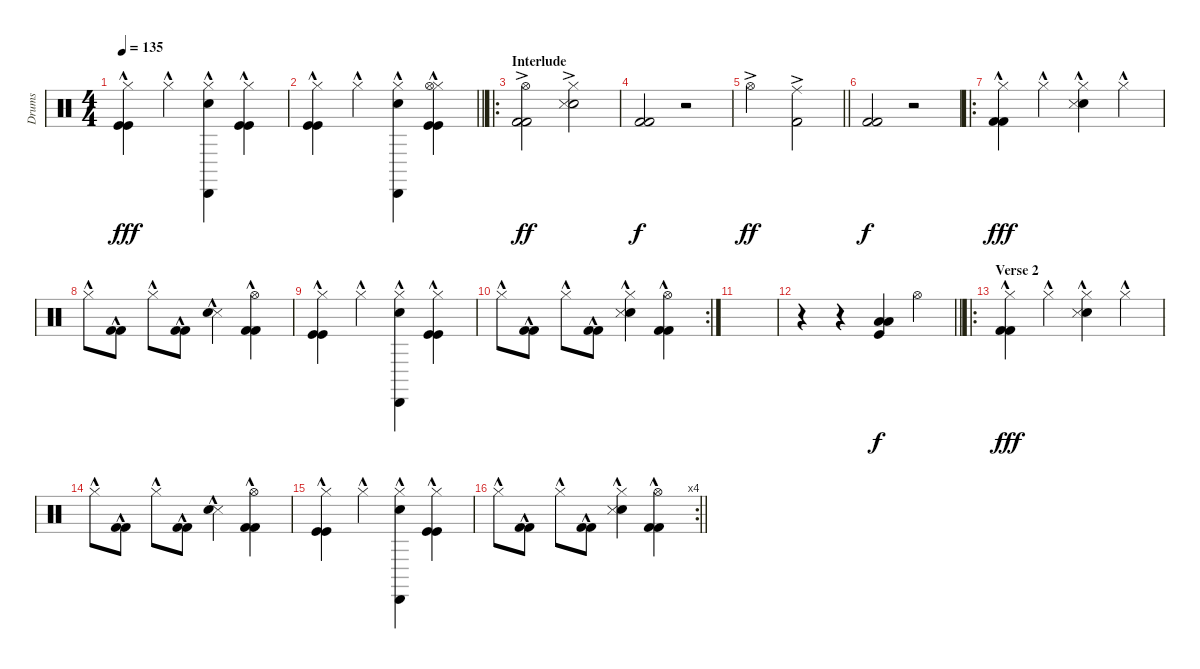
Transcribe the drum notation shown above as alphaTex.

\track ("Drums" "Drums") {instrument percussion}
\staff {score}
\articulation defaults
\ts (4 4)
\tempo 135
\clef neutral
\ks c
("Hi-Hat (closed)"{hac} "Kick (hit)"{hac} "Kick (hit)"{hac}).4{dy fff} "Hi-Hat (closed)"{hac}.4 ("Hi-Hat (closed)"{hac} "Cabasa (hit)"{hac} "Electric Snare (hit)"{hac}).4 ("Hi-Hat (closed)"{hac} "Kick (hit)"{hac} "Kick (hit)"{hac}).4 |
\barLineRight lightlight
("Hi-Hat (closed)"{hac} "Kick (hit)"{hac} "Kick (hit)"{hac}).4 "Hi-Hat (closed)"{hac}.4 ("Hi-Hat (closed)"{hac} "Cabasa (hit)"{hac} "Electric Snare (hit)"{hac}).4 ("Hi-Hat (closed)"{hac} "Kick (hit)"{hac} "Kick (hit)"{hac} "Hi-Hat (open)"{hac}).4 |
\ro
\section ("" "Interlude")
("Hi-Hat (open)"{ac} "Kick (hit) 2"{ac} "Kick (hit) 2"{ac}).2{dy ff} ("Electric Snare (hit)"{ac} "Snare (side stick) 3"{ac} "Hi-Hat (closed)").2 |
("Kick (hit) 2" "Kick (hit) 2").2{dy f} r.2 |
\barLineRight lightlight "Hi-Hat (open)"{ac}.2{dy ff}
("Ride (middle)"{ac} "Kick (hit) 2"{ac}).2 |
("Kick (hit) 2" "Kick (hit) 2").2{dy f} r.2 |
\ro
("Kick (hit) 2"{hac} "Hi-Hat (closed)"{hac} "Kick (hit) 2"{hac}).4{dy fff} "Hi-Hat (closed)"{hac}.4 ("Electric Snare (hit)"{hac} "Hi-Hat (closed)"{hac} "Snare (side stick) 3"{hac}).4 "Hi-Hat (closed)"{hac}.4 |
"Hi-Hat (closed)"{hac}.8 ("Kick (hit) 2"{hac} "Kick (hit) 2"{hac}).8 "Hi-Hat (closed)"{hac}.8 ("Kick (hit) 2"{hac} "Kick (hit) 2"{hac}).8 ("Snare (side stick) 3"{hac} "Electric Snare (hit)"{hac}).4 ("Kick (hit) 2"{hac} "Hi-Hat (open)"{hac} "Kick (hit) 2"{hac}).4 |
("Hi-Hat (closed)"{hac} "Kick (hit)"{hac} "Kick (hit)"{hac}).4 "Hi-Hat (closed)"{hac}.4 ("Hi-Hat (closed)"{hac} "Cabasa (hit)"{hac} "Electric Snare (hit)"{hac}).4 ("Hi-Hat (closed)"{hac} "Kick (hit)"{hac} "Kick (hit)"{hac}).4 |
\rc 2 "Hi-Hat (closed)"{hac}.8
("Kick (hit) 2"{hac} "Kick (hit) 2"{hac}).8 "Hi-Hat (closed)"{hac}.8 ("Kick (hit) 2"{hac} "Kick (hit) 2"{hac}).8 ("Electric Snare (hit)"{hac} "Snare (side stick) 3"{hac} "Hi-Hat (closed)").4 ("Hi-Hat (open)"{hac} "Kick (hit) 2"{hac} "Kick (hit) 2"{hac}).4 |
|
\barLineRight lightlight
r.4 r.4 ("Kick (hit)" "Low Floor Tom (hit)" "Low Floor Tom (hit)").4{dy f} "Hi-Hat (open)".4 |
\ro
\section ("" "Verse 2")
("Kick (hit) 2"{hac} "Hi-Hat (closed)"{hac} "Kick (hit) 2"{hac}).4{dy fff} "Hi-Hat (closed)"{hac}.4 ("Electric Snare (hit)"{hac} "Hi-Hat (closed)"{hac} "Snare (side stick) 3"{hac}).4 "Hi-Hat (closed)"{hac}.4 |
"Hi-Hat (closed)"{hac}.8 ("Kick (hit) 2"{hac} "Kick (hit) 2"{hac}).8 "Hi-Hat (closed)"{hac}.8 ("Kick (hit) 2"{hac} "Kick (hit) 2"{hac}).8 ("Snare (side stick) 3"{hac} "Electric Snare (hit)"{hac}).4 ("Kick (hit) 2"{hac} "Hi-Hat (open)"{hac} "Kick (hit) 2"{hac}).4 |
("Hi-Hat (closed)"{hac} "Kick (hit)"{hac} "Kick (hit)"{hac}).4 "Hi-Hat (closed)"{hac}.4 ("Hi-Hat (closed)"{hac} "Cabasa (hit)"{hac} "Electric Snare (hit)"{hac}).4 ("Hi-Hat (closed)"{hac} "Kick (hit)"{hac} "Kick (hit)"{hac}).4 |
\rc 4
\barLineRight lightlight "Hi-Hat (closed)"{hac}.8
("Kick (hit) 2"{hac} "Kick (hit) 2"{hac}).8 "Hi-Hat (closed)"{hac}.8 ("Kick (hit) 2"{hac} "Kick (hit) 2"{hac}).8 ("Electric Snare (hit)"{hac} "Snare (side stick) 3"{hac} "Hi-Hat (closed)").4 ("Kick (hit) 2"{hac} "Kick (hit) 2"{hac} "Hi-Hat (open)").4
